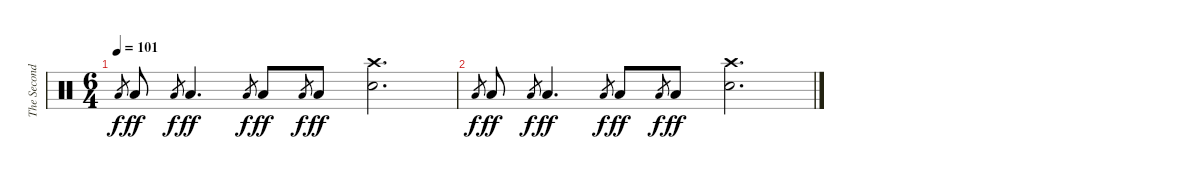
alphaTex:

\track ("The Second Drummer" "The Second") {instrument percussion}
\staff {score}
\articulation defaults
\ts (6 4)
\tempo 101
\clef neutral
\ks c "Low Floor Tom (hit)".8{gr dy f} "Low Floor Tom (hit)".8{dy ff} "Low Floor Tom (hit)".8{gr dy f} "Low Floor Tom (hit)".4{d dy ff} "Low Floor Tom (hit)".8{gr dy f} "Low Floor Tom (hit)".8{dy ff} "Low Floor Tom (hit)".8{gr dy f} "Low Floor Tom (hit)".8{dy ff}
("Crash high (hit)" "Electric Snare (hit)").2{d} |
"Low Floor Tom (hit)".8{gr dy f} "Low Floor Tom (hit)".8{dy ff} "Low Floor Tom (hit)".8{gr dy f} "Low Floor Tom (hit)".4{d dy ff} "Low Floor Tom (hit)".8{gr dy f} "Low Floor Tom (hit)".8{dy ff} "Low Floor Tom (hit)".8{gr dy f} "Low Floor Tom (hit)".8{dy ff} ("Crash high (hit)" "Electric Snare (hit)").2{d}
